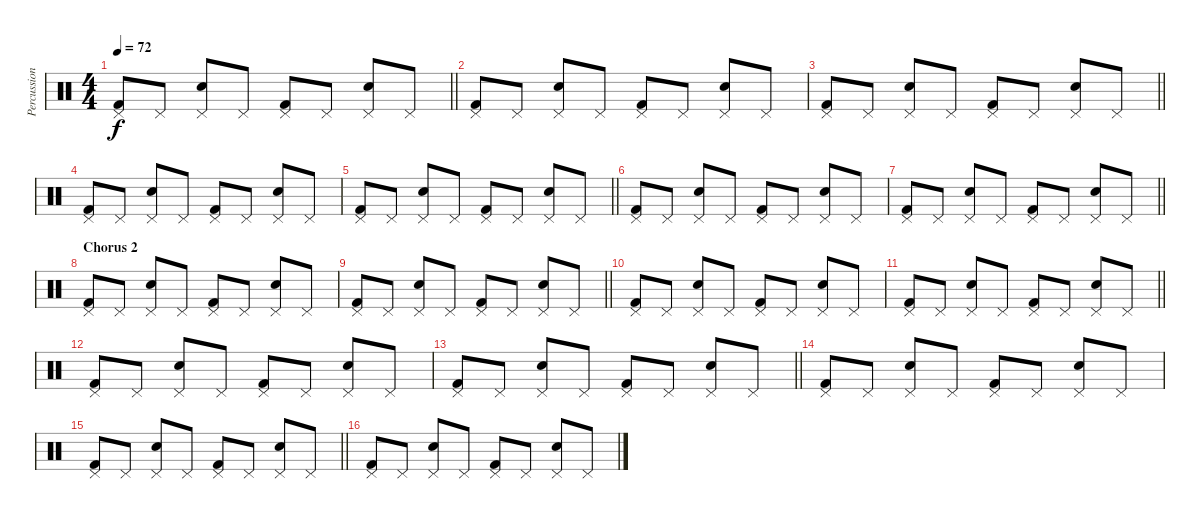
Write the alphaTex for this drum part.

\track ("Percussion" "Percussion") {instrument percussion}
\staff {score}
\articulation defaults
\ts (4 4)
\tempo 72
\clef neutral
\barLineRight lightlight
\ks c
("Pedal Hi-Hat (hit)" "Kick (hit) 2").8{dy f} "Pedal Hi-Hat (hit)".8 ("Pedal Hi-Hat (hit)" "Snare (hit) 2").8 "Pedal Hi-Hat (hit)".8 ("Pedal Hi-Hat (hit)" "Kick (hit) 2").8 "Pedal Hi-Hat (hit)".8 ("Pedal Hi-Hat (hit)" "Snare (hit) 2").8 "Pedal Hi-Hat (hit)".8 |
("Pedal Hi-Hat (hit)" "Kick (hit) 2").8 "Pedal Hi-Hat (hit)".8 ("Pedal Hi-Hat (hit)" "Snare (hit) 2").8 "Pedal Hi-Hat (hit)".8 ("Pedal Hi-Hat (hit)" "Kick (hit) 2").8 "Pedal Hi-Hat (hit)".8 ("Pedal Hi-Hat (hit)" "Snare (hit) 2").8 "Pedal Hi-Hat (hit)".8 |
\barLineRight lightlight
("Pedal Hi-Hat (hit)" "Kick (hit) 2").8 "Pedal Hi-Hat (hit)".8 ("Pedal Hi-Hat (hit)" "Snare (hit) 2").8 "Pedal Hi-Hat (hit)".8 ("Pedal Hi-Hat (hit)" "Kick (hit) 2").8 "Pedal Hi-Hat (hit)".8 ("Pedal Hi-Hat (hit)" "Snare (hit) 2").8 "Pedal Hi-Hat (hit)".8 |
("Pedal Hi-Hat (hit)" "Kick (hit) 2").8 "Pedal Hi-Hat (hit)".8 ("Pedal Hi-Hat (hit)" "Snare (hit) 2").8 "Pedal Hi-Hat (hit)".8 ("Pedal Hi-Hat (hit)" "Kick (hit) 2").8 "Pedal Hi-Hat (hit)".8 ("Pedal Hi-Hat (hit)" "Snare (hit) 2").8 "Pedal Hi-Hat (hit)".8 |
\barLineRight lightlight
("Pedal Hi-Hat (hit)" "Kick (hit) 2").8 "Pedal Hi-Hat (hit)".8 ("Pedal Hi-Hat (hit)" "Snare (hit) 2").8 "Pedal Hi-Hat (hit)".8 ("Pedal Hi-Hat (hit)" "Kick (hit) 2").8 "Pedal Hi-Hat (hit)".8 ("Pedal Hi-Hat (hit)" "Snare (hit) 2").8 "Pedal Hi-Hat (hit)".8 |
("Pedal Hi-Hat (hit)" "Kick (hit) 2").8 "Pedal Hi-Hat (hit)".8 ("Pedal Hi-Hat (hit)" "Snare (hit) 2").8 "Pedal Hi-Hat (hit)".8 ("Pedal Hi-Hat (hit)" "Kick (hit) 2").8 "Pedal Hi-Hat (hit)".8 ("Pedal Hi-Hat (hit)" "Snare (hit) 2").8 "Pedal Hi-Hat (hit)".8 |
\barLineRight lightlight
("Pedal Hi-Hat (hit)" "Kick (hit) 2").8 "Pedal Hi-Hat (hit)".8 ("Pedal Hi-Hat (hit)" "Snare (hit) 2").8 "Pedal Hi-Hat (hit)".8 ("Pedal Hi-Hat (hit)" "Kick (hit) 2").8 "Pedal Hi-Hat (hit)".8 ("Pedal Hi-Hat (hit)" "Snare (hit) 2").8 "Pedal Hi-Hat (hit)".8 |
\section ("" "Chorus 2")
("Pedal Hi-Hat (hit)" "Kick (hit) 2").8 "Pedal Hi-Hat (hit)".8 ("Pedal Hi-Hat (hit)" "Snare (hit) 2").8 "Pedal Hi-Hat (hit)".8 ("Pedal Hi-Hat (hit)" "Kick (hit) 2").8 "Pedal Hi-Hat (hit)".8 ("Pedal Hi-Hat (hit)" "Snare (hit) 2").8 "Pedal Hi-Hat (hit)".8 |
\barLineRight lightlight
("Pedal Hi-Hat (hit)" "Kick (hit) 2").8 "Pedal Hi-Hat (hit)".8 ("Pedal Hi-Hat (hit)" "Snare (hit) 2").8 "Pedal Hi-Hat (hit)".8 ("Pedal Hi-Hat (hit)" "Kick (hit) 2").8 "Pedal Hi-Hat (hit)".8 ("Pedal Hi-Hat (hit)" "Snare (hit) 2").8 "Pedal Hi-Hat (hit)".8 |
("Pedal Hi-Hat (hit)" "Kick (hit) 2").8 "Pedal Hi-Hat (hit)".8 ("Pedal Hi-Hat (hit)" "Snare (hit) 2").8 "Pedal Hi-Hat (hit)".8 ("Pedal Hi-Hat (hit)" "Kick (hit) 2").8 "Pedal Hi-Hat (hit)".8 ("Pedal Hi-Hat (hit)" "Snare (hit) 2").8 "Pedal Hi-Hat (hit)".8 |
\barLineRight lightlight
("Pedal Hi-Hat (hit)" "Kick (hit) 2").8 "Pedal Hi-Hat (hit)".8 ("Pedal Hi-Hat (hit)" "Snare (hit) 2").8 "Pedal Hi-Hat (hit)".8 ("Pedal Hi-Hat (hit)" "Kick (hit) 2").8 "Pedal Hi-Hat (hit)".8 ("Pedal Hi-Hat (hit)" "Snare (hit) 2").8 "Pedal Hi-Hat (hit)".8 |
("Pedal Hi-Hat (hit)" "Kick (hit) 2").8 "Pedal Hi-Hat (hit)".8 ("Pedal Hi-Hat (hit)" "Snare (hit) 2").8 "Pedal Hi-Hat (hit)".8 ("Pedal Hi-Hat (hit)" "Kick (hit) 2").8 "Pedal Hi-Hat (hit)".8 ("Pedal Hi-Hat (hit)" "Snare (hit) 2").8 "Pedal Hi-Hat (hit)".8 |
\barLineRight lightlight
("Pedal Hi-Hat (hit)" "Kick (hit) 2").8 "Pedal Hi-Hat (hit)".8 ("Pedal Hi-Hat (hit)" "Snare (hit) 2").8 "Pedal Hi-Hat (hit)".8 ("Pedal Hi-Hat (hit)" "Kick (hit) 2").8 "Pedal Hi-Hat (hit)".8 ("Pedal Hi-Hat (hit)" "Snare (hit) 2").8 "Pedal Hi-Hat (hit)".8 |
("Pedal Hi-Hat (hit)" "Kick (hit) 2").8 "Pedal Hi-Hat (hit)".8 ("Pedal Hi-Hat (hit)" "Snare (hit) 2").8 "Pedal Hi-Hat (hit)".8 ("Pedal Hi-Hat (hit)" "Kick (hit) 2").8 "Pedal Hi-Hat (hit)".8 ("Pedal Hi-Hat (hit)" "Snare (hit) 2").8 "Pedal Hi-Hat (hit)".8 |
\barLineRight lightlight
("Pedal Hi-Hat (hit)" "Kick (hit) 2").8 "Pedal Hi-Hat (hit)".8 ("Pedal Hi-Hat (hit)" "Snare (hit) 2").8 "Pedal Hi-Hat (hit)".8 ("Pedal Hi-Hat (hit)" "Kick (hit) 2").8 "Pedal Hi-Hat (hit)".8 ("Pedal Hi-Hat (hit)" "Snare (hit) 2").8 "Pedal Hi-Hat (hit)".8 |
("Pedal Hi-Hat (hit)" "Kick (hit) 2").8 "Pedal Hi-Hat (hit)".8 ("Pedal Hi-Hat (hit)" "Snare (hit) 2").8 "Pedal Hi-Hat (hit)".8 ("Pedal Hi-Hat (hit)" "Kick (hit) 2").8 "Pedal Hi-Hat (hit)".8 ("Pedal Hi-Hat (hit)" "Snare (hit) 2").8 "Pedal Hi-Hat (hit)".8
